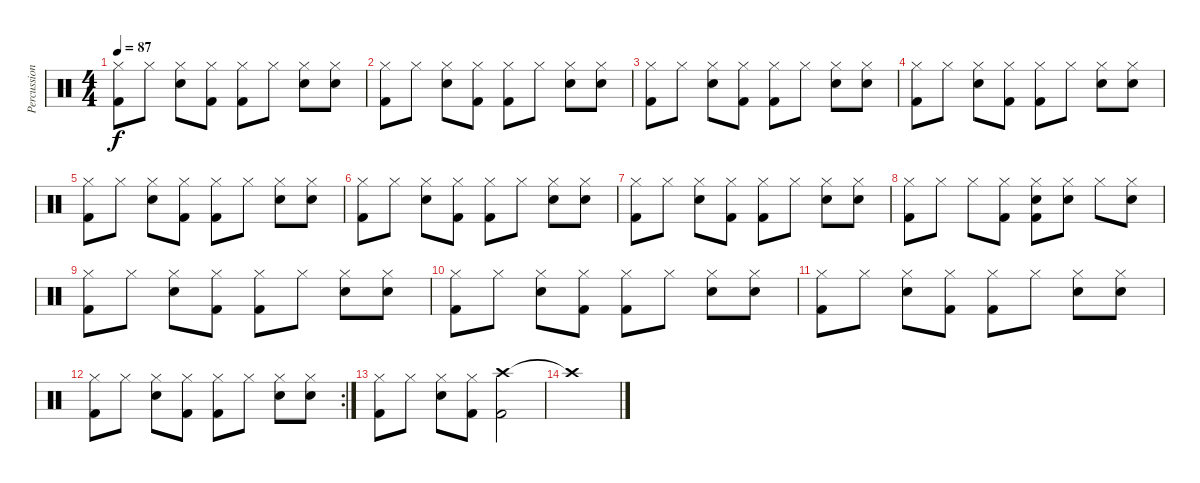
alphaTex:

\track ("Percussion" "Percussion") {instrument percussion}
\staff {score}
\articulation defaults
\ts (4 4)
\tempo 87
\clef neutral
\ks c
("Hi-Hat (closed)" "Kick (hit) 2").8{dy f} "Hi-Hat (closed)".8 ("Hi-Hat (closed)" "Snare (hit) 2").8 ("Hi-Hat (closed)" "Kick (hit) 2").8 ("Hi-Hat (closed)" "Kick (hit) 2").8 "Hi-Hat (closed)".8 ("Hi-Hat (closed)" "Snare (hit) 2").8 ("Hi-Hat (closed)" "Snare (hit) 2").8 |
("Hi-Hat (closed)" "Kick (hit) 2").8 "Hi-Hat (closed)".8 ("Hi-Hat (closed)" "Snare (hit) 2").8 ("Hi-Hat (closed)" "Kick (hit) 2").8 ("Hi-Hat (closed)" "Kick (hit) 2").8 "Hi-Hat (closed)".8 ("Hi-Hat (closed)" "Snare (hit) 2").8 ("Hi-Hat (closed)" "Snare (hit) 2").8 |
("Hi-Hat (closed)" "Kick (hit) 2").8 "Hi-Hat (closed)".8 ("Hi-Hat (closed)" "Snare (hit) 2").8 ("Hi-Hat (closed)" "Kick (hit) 2").8 ("Hi-Hat (closed)" "Kick (hit) 2").8 "Hi-Hat (closed)".8 ("Hi-Hat (closed)" "Snare (hit) 2").8 ("Hi-Hat (closed)" "Snare (hit) 2").8 |
("Hi-Hat (closed)" "Kick (hit) 2").8 "Hi-Hat (closed)".8 ("Hi-Hat (closed)" "Snare (hit) 2").8 ("Hi-Hat (closed)" "Kick (hit) 2").8 ("Hi-Hat (closed)" "Kick (hit) 2").8 "Hi-Hat (closed)".8 ("Hi-Hat (closed)" "Snare (hit) 2").8 ("Hi-Hat (closed)" "Snare (hit) 2").8 |
("Hi-Hat (closed)" "Kick (hit) 2").8 "Hi-Hat (closed)".8 ("Hi-Hat (closed)" "Snare (hit) 2").8 ("Hi-Hat (closed)" "Kick (hit) 2").8 ("Hi-Hat (closed)" "Kick (hit) 2").8 "Hi-Hat (closed)".8 ("Hi-Hat (closed)" "Snare (hit) 2").8 ("Hi-Hat (closed)" "Snare (hit) 2").8 |
("Hi-Hat (closed)" "Kick (hit) 2").8 "Hi-Hat (closed)".8 ("Hi-Hat (closed)" "Snare (hit) 2").8 ("Hi-Hat (closed)" "Kick (hit) 2").8 ("Hi-Hat (closed)" "Kick (hit) 2").8 "Hi-Hat (closed)".8 ("Hi-Hat (closed)" "Snare (hit) 2").8 ("Hi-Hat (closed)" "Snare (hit) 2").8 |
("Hi-Hat (closed)" "Kick (hit) 2").8 "Hi-Hat (closed)".8 ("Hi-Hat (closed)" "Snare (hit) 2").8 ("Hi-Hat (closed)" "Kick (hit) 2").8 ("Hi-Hat (closed)" "Kick (hit) 2").8 "Hi-Hat (closed)".8 ("Hi-Hat (closed)" "Snare (hit) 2").8 ("Hi-Hat (closed)" "Snare (hit) 2").8 |
("Hi-Hat (closed)" "Kick (hit) 2").8 "Hi-Hat (closed)".8 "Hi-Hat (closed)".8 ("Hi-Hat (closed)" "Kick (hit) 2").8 ("Hi-Hat (closed)" "Snare (hit) 2" "Kick (hit) 2").8 ("Hi-Hat (closed)" "Snare (hit) 2").8 "Hi-Hat (closed)".8 ("Hi-Hat (closed)" "Snare (hit) 2").8 |
("Hi-Hat (closed)" "Kick (hit) 2").8 "Hi-Hat (closed)".8 ("Hi-Hat (closed)" "Snare (hit) 2").8 ("Hi-Hat (closed)" "Kick (hit) 2").8 ("Hi-Hat (closed)" "Kick (hit) 2").8 "Hi-Hat (closed)".8 ("Hi-Hat (closed)" "Snare (hit) 2").8 ("Hi-Hat (closed)" "Snare (hit) 2").8 |
("Hi-Hat (closed)" "Kick (hit) 2").8 "Hi-Hat (closed)".8 ("Hi-Hat (closed)" "Snare (hit) 2").8 ("Hi-Hat (closed)" "Kick (hit) 2").8 ("Hi-Hat (closed)" "Kick (hit) 2").8 "Hi-Hat (closed)".8 ("Hi-Hat (closed)" "Snare (hit) 2").8 ("Hi-Hat (closed)" "Snare (hit) 2").8 |
("Hi-Hat (closed)" "Kick (hit) 2").8 "Hi-Hat (closed)".8 ("Hi-Hat (closed)" "Snare (hit) 2").8 ("Hi-Hat (closed)" "Kick (hit) 2").8 ("Hi-Hat (closed)" "Kick (hit) 2").8 "Hi-Hat (closed)".8 ("Hi-Hat (closed)" "Snare (hit) 2").8 ("Hi-Hat (closed)" "Snare (hit) 2").8 |
\rc 2
("Hi-Hat (closed)" "Kick (hit) 2").8 "Hi-Hat (closed)".8 ("Hi-Hat (closed)" "Snare (hit) 2").8 ("Hi-Hat (closed)" "Kick (hit) 2").8 ("Hi-Hat (closed)" "Kick (hit) 2").8 "Hi-Hat (closed)".8 ("Hi-Hat (closed)" "Snare (hit) 2").8 ("Hi-Hat (closed)" "Snare (hit) 2").8 |
("Hi-Hat (closed)" "Kick (hit) 2").8 "Hi-Hat (closed)".8 ("Hi-Hat (closed)" "Snare (hit) 2").8 ("Hi-Hat (closed)" "Kick (hit) 2").8 ("Crash high (hit)" "Kick (hit) 2").2 |
"Crash high (hit)"{t}.1
